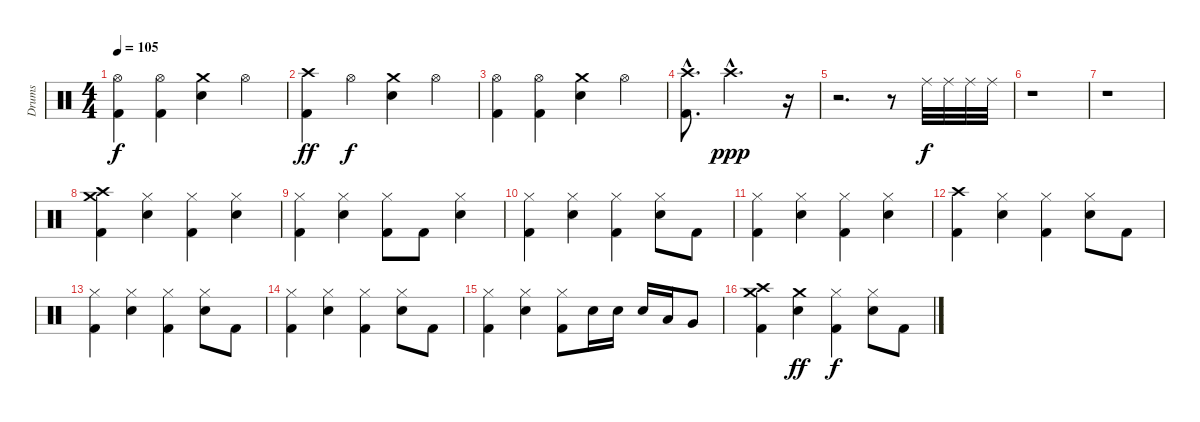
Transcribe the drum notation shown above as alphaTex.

\track ("Drums" "Drums") {instrument percussion}
\staff {score}
\articulation defaults
\ts (4 4)
\tempo 105
\clef neutral
\ks c
("Hi-Hat (open)" "Kick (hit) 2").4{dy f} ("Hi-Hat (open)" "Kick (hit) 2").4 ("Crash medium (hit)" "Snare (hit) 2").4 "Hi-Hat (open)".4 |
("Crash high (hit)" "Kick (hit) 2").4{dy ff} "Hi-Hat (open)".4{dy f} ("Crash medium (hit)" "Snare (hit) 2").4 "Hi-Hat (open)".4 |
("Hi-Hat (open)" "Kick (hit) 2").4 ("Hi-Hat (open)" "Kick (hit) 2").4 ("Crash medium (hit)" "Snare (hit) 2").4 "Hi-Hat (open)".4 |
("Crash high (hit)"{hac} "Kick (hit) 2"{hac}).8{d} "Crash high (hit)"{hac}.2{d dy ppp} r.16 |
r.2{d} r.8 "Ride (middle)".32{dy f} "Ride (middle)".32 "Ride (middle)".32 "Ride (middle)".32 |
r.1 |
r.1 |
("Crash high (hit)" "Crash medium (hit)" "Kick (hit) 2").4 ("Hi-Hat (closed)" "Snare (hit) 2").4 ("Hi-Hat (closed)" "Kick (hit) 2").4 ("Hi-Hat (closed)" "Snare (hit) 2").4 |
("Hi-Hat (closed)" "Kick (hit) 2").4 ("Hi-Hat (closed)" "Snare (hit) 2").4 ("Hi-Hat (closed)" "Kick (hit) 2").8 "Kick (hit) 2".8 ("Hi-Hat (closed)" "Snare (hit) 2").4 |
("Hi-Hat (closed)" "Kick (hit) 2").4 ("Hi-Hat (closed)" "Snare (hit) 2").4 ("Hi-Hat (closed)" "Kick (hit) 2").4 ("Hi-Hat (closed)" "Snare (hit) 2").8 "Kick (hit) 2".8 |
("Hi-Hat (closed)" "Kick (hit) 2").4 ("Hi-Hat (closed)" "Snare (hit) 2").4 ("Hi-Hat (closed)" "Kick (hit) 2").4 ("Hi-Hat (closed)" "Snare (hit) 2").4 |
("Crash high (hit)" "Kick (hit) 2").4 ("Hi-Hat (closed)" "Snare (hit) 2").4 ("Hi-Hat (closed)" "Kick (hit) 2").4 ("Hi-Hat (closed)" "Snare (hit) 2").8 "Kick (hit) 2".8 |
("Hi-Hat (closed)" "Kick (hit) 2").4 ("Hi-Hat (closed)" "Snare (hit) 2").4 ("Hi-Hat (closed)" "Kick (hit) 2").4 ("Hi-Hat (closed)" "Snare (hit) 2").8 "Kick (hit) 2".8 |
("Hi-Hat (closed)" "Kick (hit) 2").4 ("Hi-Hat (closed)" "Snare (hit) 2").4 ("Hi-Hat (closed)" "Kick (hit) 2").4 ("Hi-Hat (closed)" "Snare (hit) 2").8 "Kick (hit) 2".8 |
("Hi-Hat (closed)" "Kick (hit) 2").4 ("Hi-Hat (closed)" "Snare (hit) 2").4 ("Hi-Hat (closed)" "Kick (hit) 2").8 "Snare (hit) 2".16 "Snare (hit) 2".16 "Snare (hit) 2".16 "Low Tom (hit)".16 "Very Low Tom (hit)".8 |
("Crash high (hit)" "Crash medium (hit)" "Kick (hit) 2").4 ("Crash medium (hit)" "Snare (hit) 2").4{dy ff} ("Hi-Hat (closed)" "Kick (hit) 2").4{dy f} ("Hi-Hat (closed)" "Snare (hit) 2").8 "Kick (hit) 2".8
